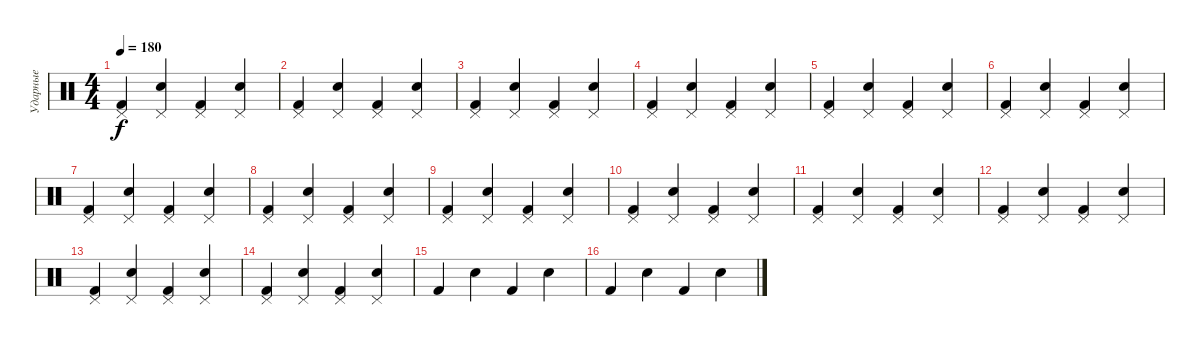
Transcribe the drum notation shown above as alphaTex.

\track ("Ударные" "Ударные") {instrument percussion}
\staff {score}
\articulation defaults
\ts (4 4)
\tempo 180
\clef neutral
\ks c
("Kick (hit) 2" "Pedal Hi-Hat (hit)").4{dy f} ("Electric Snare (hit)" "Pedal Hi-Hat (hit)").4 ("Kick (hit) 2" "Pedal Hi-Hat (hit)").4 ("Electric Snare (hit)" "Pedal Hi-Hat (hit)").4 |
("Kick (hit) 2" "Pedal Hi-Hat (hit)").4 ("Electric Snare (hit)" "Pedal Hi-Hat (hit)").4 ("Kick (hit) 2" "Pedal Hi-Hat (hit)").4 ("Electric Snare (hit)" "Pedal Hi-Hat (hit)").4 |
("Kick (hit) 2" "Pedal Hi-Hat (hit)").4 ("Electric Snare (hit)" "Pedal Hi-Hat (hit)").4 ("Kick (hit) 2" "Pedal Hi-Hat (hit)").4 ("Electric Snare (hit)" "Pedal Hi-Hat (hit)").4 |
("Kick (hit) 2" "Pedal Hi-Hat (hit)").4 ("Electric Snare (hit)" "Pedal Hi-Hat (hit)").4 ("Kick (hit) 2" "Pedal Hi-Hat (hit)").4 ("Electric Snare (hit)" "Pedal Hi-Hat (hit)").4 |
("Kick (hit) 2" "Pedal Hi-Hat (hit)").4 ("Electric Snare (hit)" "Pedal Hi-Hat (hit)").4 ("Kick (hit) 2" "Pedal Hi-Hat (hit)").4 ("Electric Snare (hit)" "Pedal Hi-Hat (hit)").4 |
("Kick (hit) 2" "Pedal Hi-Hat (hit)").4 ("Electric Snare (hit)" "Pedal Hi-Hat (hit)").4 ("Kick (hit) 2" "Pedal Hi-Hat (hit)").4 ("Electric Snare (hit)" "Pedal Hi-Hat (hit)").4 |
("Kick (hit) 2" "Pedal Hi-Hat (hit)").4 ("Electric Snare (hit)" "Pedal Hi-Hat (hit)").4 ("Kick (hit) 2" "Pedal Hi-Hat (hit)").4 ("Electric Snare (hit)" "Pedal Hi-Hat (hit)").4 |
("Kick (hit) 2" "Pedal Hi-Hat (hit)").4 ("Electric Snare (hit)" "Pedal Hi-Hat (hit)").4 ("Kick (hit) 2" "Pedal Hi-Hat (hit)").4 ("Electric Snare (hit)" "Pedal Hi-Hat (hit)").4 |
("Kick (hit) 2" "Pedal Hi-Hat (hit)").4 ("Electric Snare (hit)" "Pedal Hi-Hat (hit)").4 ("Kick (hit) 2" "Pedal Hi-Hat (hit)").4 ("Electric Snare (hit)" "Pedal Hi-Hat (hit)").4 |
("Kick (hit) 2" "Pedal Hi-Hat (hit)").4 ("Electric Snare (hit)" "Pedal Hi-Hat (hit)").4 ("Kick (hit) 2" "Pedal Hi-Hat (hit)").4 ("Electric Snare (hit)" "Pedal Hi-Hat (hit)").4 |
("Kick (hit) 2" "Pedal Hi-Hat (hit)").4 ("Electric Snare (hit)" "Pedal Hi-Hat (hit)").4 ("Kick (hit) 2" "Pedal Hi-Hat (hit)").4 ("Electric Snare (hit)" "Pedal Hi-Hat (hit)").4 |
("Kick (hit) 2" "Pedal Hi-Hat (hit)").4 ("Electric Snare (hit)" "Pedal Hi-Hat (hit)").4 ("Kick (hit) 2" "Pedal Hi-Hat (hit)").4 ("Electric Snare (hit)" "Pedal Hi-Hat (hit)").4 |
("Kick (hit) 2" "Pedal Hi-Hat (hit)").4 ("Electric Snare (hit)" "Pedal Hi-Hat (hit)").4 ("Kick (hit) 2" "Pedal Hi-Hat (hit)").4 ("Electric Snare (hit)" "Pedal Hi-Hat (hit)").4 |
("Kick (hit) 2" "Pedal Hi-Hat (hit)").4 ("Electric Snare (hit)" "Pedal Hi-Hat (hit)").4 ("Kick (hit) 2" "Pedal Hi-Hat (hit)").4 ("Electric Snare (hit)" "Pedal Hi-Hat (hit)").4 |
"Kick (hit) 2".4 "Electric Snare (hit)".4 "Kick (hit) 2".4 "Electric Snare (hit)".4 |
"Kick (hit) 2".4 "Electric Snare (hit)".4 "Kick (hit) 2".4 "Electric Snare (hit)".4
